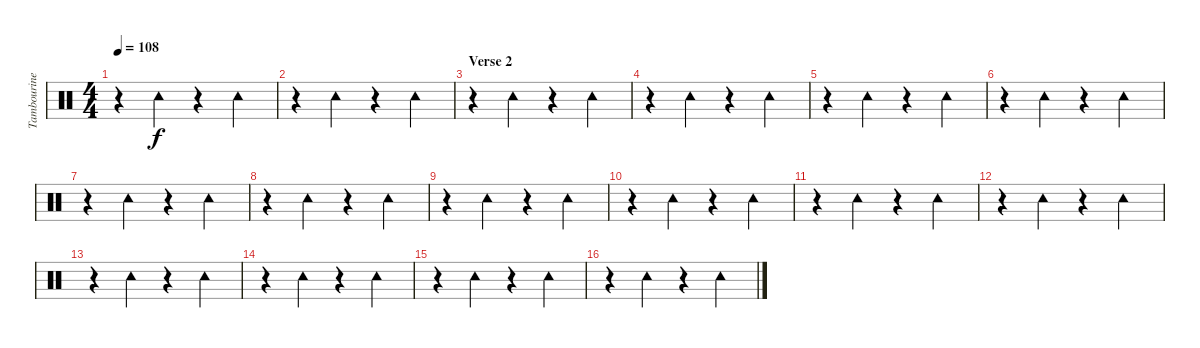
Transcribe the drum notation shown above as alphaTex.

\track ("Tambourine" "Tambourine") {instrument percussion}
\staff {score}
\articulation defaults
\ts (4 4)
\tempo 108
\clef neutral
\ks c
r.4{dy f} "Tambourine (hit)".4 r.4 "Tambourine (hit)".4 |
r.4 "Tambourine (hit)".4 r.4 "Tambourine (hit)".4 |
\section ("" "Verse 2")
r.4 "Tambourine (hit)".4 r.4 "Tambourine (hit)".4 |
r.4 "Tambourine (hit)".4 r.4 "Tambourine (hit)".4 |
r.4 "Tambourine (hit)".4 r.4 "Tambourine (hit)".4 |
r.4 "Tambourine (hit)".4 r.4 "Tambourine (hit)".4 |
r.4 "Tambourine (hit)".4 r.4 "Tambourine (hit)".4 |
r.4 "Tambourine (hit)".4 r.4 "Tambourine (hit)".4 |
r.4 "Tambourine (hit)".4 r.4 "Tambourine (hit)".4 |
r.4 "Tambourine (hit)".4 r.4 "Tambourine (hit)".4 |
r.4 "Tambourine (hit)".4 r.4 "Tambourine (hit)".4 |
r.4 "Tambourine (hit)".4 r.4 "Tambourine (hit)".4 |
r.4 "Tambourine (hit)".4 r.4 "Tambourine (hit)".4 |
r.4 "Tambourine (hit)".4 r.4 "Tambourine (hit)".4 |
r.4 "Tambourine (hit)".4 r.4 "Tambourine (hit)".4 |
r.4 "Tambourine (hit)".4 r.4 "Tambourine (hit)".4
